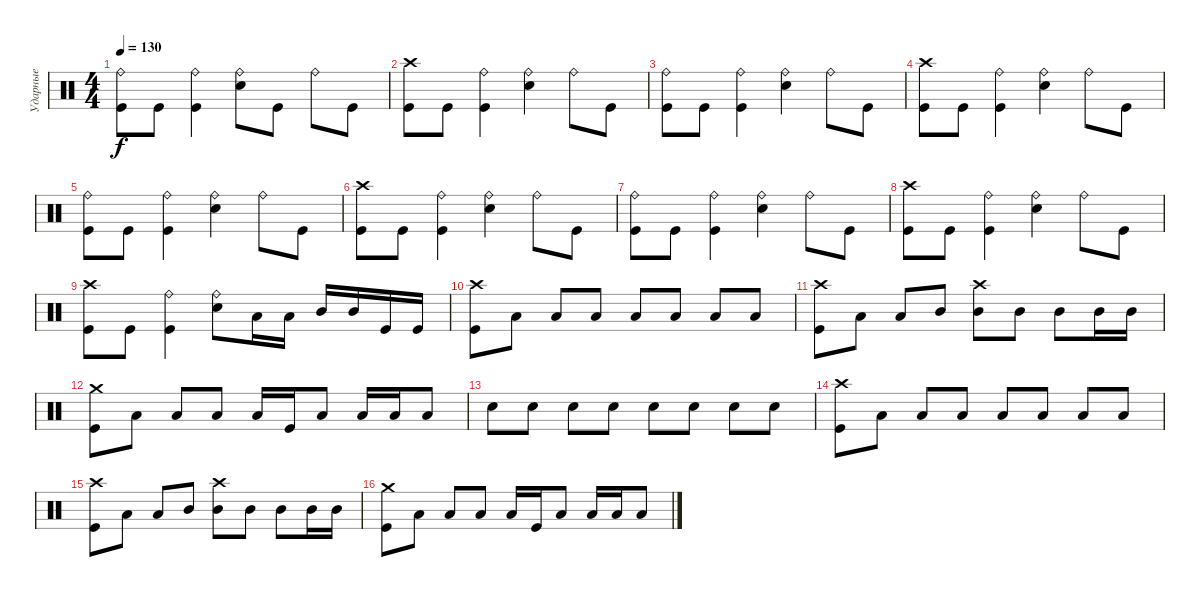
\track ("Ударные" "Ударные") {instrument percussion}
\staff {score}
\articulation defaults
\ts (4 4)
\tempo 130
\clef neutral
\ks c
("Ride (bell)" "Kick (hit)").8{dy f} "Kick (hit)".8 ("Ride (bell)" "Kick (hit)").4 ("Ride (bell)" "Electric Snare (hit)").8 "Kick (hit)".8 "Ride (bell)".8 "Kick (hit)".8 |
("Crash high (hit)" "Kick (hit)").8 "Kick (hit)".8 ("Ride (bell)" "Kick (hit)").4 ("Ride (bell)" "Electric Snare (hit)").4 "Ride (bell)".8 "Kick (hit)".8 |
("Ride (bell)" "Kick (hit)").8 "Kick (hit)".8 ("Ride (bell)" "Kick (hit)").4 ("Ride (bell)" "Electric Snare (hit)").4 "Ride (bell)".8 "Kick (hit)".8 |
("Crash high (hit)" "Kick (hit)").8 "Kick (hit)".8 ("Ride (bell)" "Kick (hit)").4 ("Ride (bell)" "Electric Snare (hit)").4 "Ride (bell)".8 "Kick (hit)".8 |
("Ride (bell)" "Kick (hit)").8 "Kick (hit)".8 ("Ride (bell)" "Kick (hit)").4 ("Ride (bell)" "Electric Snare (hit)").4 "Ride (bell)".8 "Kick (hit)".8 |
("Crash high (hit)" "Kick (hit)").8 "Kick (hit)".8 ("Ride (bell)" "Kick (hit)").4 ("Ride (bell)" "Electric Snare (hit)").4 "Ride (bell)".8 "Kick (hit)".8 |
("Ride (bell)" "Kick (hit)").8 "Kick (hit)".8 ("Ride (bell)" "Kick (hit)").4 ("Ride (bell)" "Electric Snare (hit)").4 "Ride (bell)".8 "Kick (hit)".8 |
("Crash high (hit)" "Kick (hit)").8 "Kick (hit)".8 ("Ride (bell)" "Kick (hit)").4 ("Ride (bell)" "Electric Snare (hit)").4 "Ride (bell)".8 "Kick (hit)".8 |
("Crash high (hit)" "Kick (hit)").8 "Kick (hit)".8 ("Ride (bell)" "Kick (hit)").4 ("Ride (bell)" "Electric Snare (hit)").8 "Low Tom (hit)".16 "Low Tom (hit)".16 "Mid Tom (hit)".16 "Mid Tom (hit)".16 "Kick (hit)".16 "Kick (hit)".16 |
("Crash high (hit)" "Kick (hit)").8 "Low Tom (hit)".8 "Low Tom (hit)".8 "Low Tom (hit)".8 "Low Tom (hit)".8 "Low Tom (hit)".8 "Low Tom (hit)".8 "Low Tom (hit)".8 |
("Crash high (hit)" "Kick (hit)").8 "Low Tom (hit)".8 "Low Tom (hit)".8 "Mid Tom (hit)".8 ("Crash high (hit)" "Mid Tom (hit)").8 "Mid Tom (hit)".8 "Mid Tom (hit)".8 "Mid Tom (hit)".16 "Mid Tom (hit)".16 |
("Crash medium (hit)" "Kick (hit)").8 "Low Tom (hit)".8 "Low Tom (hit)".8 "Low Tom (hit)".8 "Low Tom (hit)".16 "Kick (hit)".16 "Low Tom (hit)".8 "Low Tom (hit)".16 "Low Tom (hit)".16 "Low Tom (hit)".8 |
"Electric Snare (hit)".8 "Electric Snare (hit)".8 "Electric Snare (hit)".8 "Electric Snare (hit)".8 "Electric Snare (hit)".8 "Electric Snare (hit)".8 "Electric Snare (hit)".8 "Electric Snare (hit)".8 |
("Crash high (hit)" "Kick (hit)").8 "Low Tom (hit)".8 "Low Tom (hit)".8 "Low Tom (hit)".8 "Low Tom (hit)".8 "Low Tom (hit)".8 "Low Tom (hit)".8 "Low Tom (hit)".8 |
("Crash high (hit)" "Kick (hit)").8 "Low Tom (hit)".8 "Low Tom (hit)".8 "Mid Tom (hit)".8 ("Crash high (hit)" "Mid Tom (hit)").8 "Mid Tom (hit)".8 "Mid Tom (hit)".8 "Mid Tom (hit)".16 "Mid Tom (hit)".16 |
("Crash medium (hit)" "Kick (hit)").8 "Low Tom (hit)".8 "Low Tom (hit)".8 "Low Tom (hit)".8 "Low Tom (hit)".16 "Kick (hit)".16 "Low Tom (hit)".8 "Low Tom (hit)".16 "Low Tom (hit)".16 "Low Tom (hit)".8
